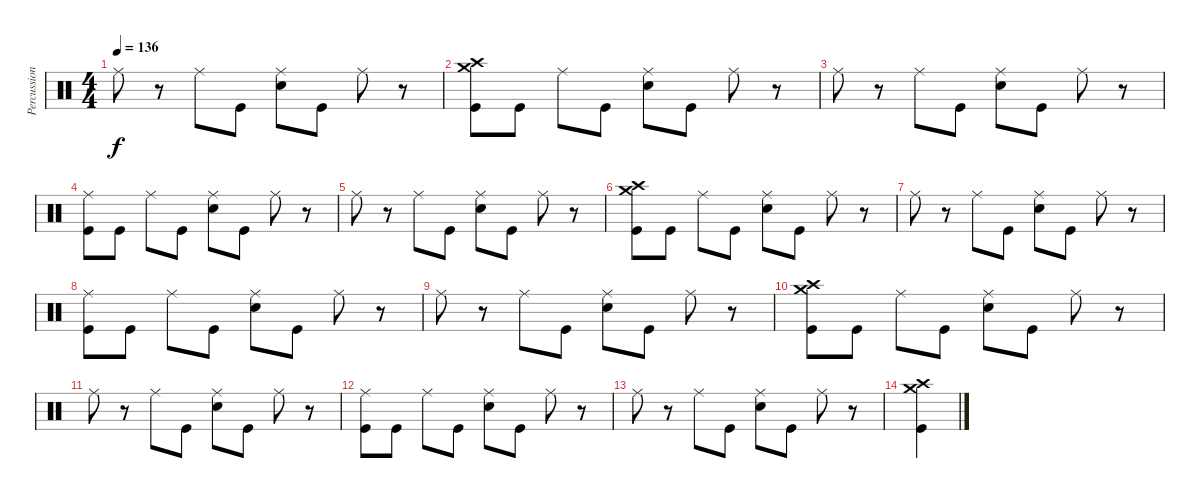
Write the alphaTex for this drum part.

\track ("Percussion" "Percussion") {instrument percussion}
\staff {score}
\articulation defaults
\ts (4 4)
\tempo 136
\clef neutral
\ks c "Ride (middle)".8{dy f}
r.8 "Ride (middle)".8 "Kick (hit)".8 ("Ride (middle)" "Electric Snare (hit)").8 "Kick (hit)".8 "Ride (middle)".8 r.8 |
("Crash high (hit)" "Crash medium (hit)" "Kick (hit)").8 "Kick (hit)".8 "Ride (middle)".8 "Kick (hit)".8 ("Ride (middle)" "Electric Snare (hit)").8 "Kick (hit)".8 "Ride (middle)".8 r.8 |
"Ride (middle)".8 r.8 "Ride (middle)".8 "Kick (hit)".8 ("Ride (middle)" "Electric Snare (hit)").8 "Kick (hit)".8 "Ride (middle)".8 r.8 |
("Ride (middle)" "Kick (hit)").8 "Kick (hit)".8 "Ride (middle)".8 "Kick (hit)".8 ("Ride (middle)" "Electric Snare (hit)").8 "Kick (hit)".8 "Ride (middle)".8 r.8 |
"Ride (middle)".8 r.8 "Ride (middle)".8 "Kick (hit)".8 ("Ride (middle)" "Electric Snare (hit)").8 "Kick (hit)".8 "Ride (middle)".8 r.8 |
("Crash high (hit)" "Crash medium (hit)" "Kick (hit)").8 "Kick (hit)".8 "Ride (middle)".8 "Kick (hit)".8 ("Ride (middle)" "Electric Snare (hit)").8 "Kick (hit)".8 "Ride (middle)".8 r.8 |
"Ride (middle)".8 r.8 "Ride (middle)".8 "Kick (hit)".8 ("Ride (middle)" "Electric Snare (hit)").8 "Kick (hit)".8 "Ride (middle)".8 r.8 |
("Ride (middle)" "Kick (hit)").8 "Kick (hit)".8 "Ride (middle)".8 "Kick (hit)".8 ("Ride (middle)" "Electric Snare (hit)").8 "Kick (hit)".8 "Ride (middle)".8 r.8 |
"Ride (middle)".8 r.8 "Ride (middle)".8 "Kick (hit)".8 ("Ride (middle)" "Electric Snare (hit)").8 "Kick (hit)".8 "Ride (middle)".8 r.8 |
("Crash high (hit)" "Crash medium (hit)" "Kick (hit)").8 "Kick (hit)".8 "Ride (middle)".8 "Kick (hit)".8 ("Ride (middle)" "Electric Snare (hit)").8 "Kick (hit)".8 "Ride (middle)".8 r.8 |
"Ride (middle)".8 r.8 "Ride (middle)".8 "Kick (hit)".8 ("Ride (middle)" "Electric Snare (hit)").8 "Kick (hit)".8 "Ride (middle)".8 r.8 |
("Ride (middle)" "Kick (hit)").8 "Kick (hit)".8 "Ride (middle)".8 "Kick (hit)".8 ("Ride (middle)" "Electric Snare (hit)").8 "Kick (hit)".8 "Ride (middle)".8 r.8 |
"Ride (middle)".8 r.8 "Ride (middle)".8 "Kick (hit)".8 ("Ride (middle)" "Electric Snare (hit)").8 "Kick (hit)".8 "Ride (middle)".8 r.8 |
("Crash high (hit)" "Crash medium (hit)" "Kick (hit)").4
